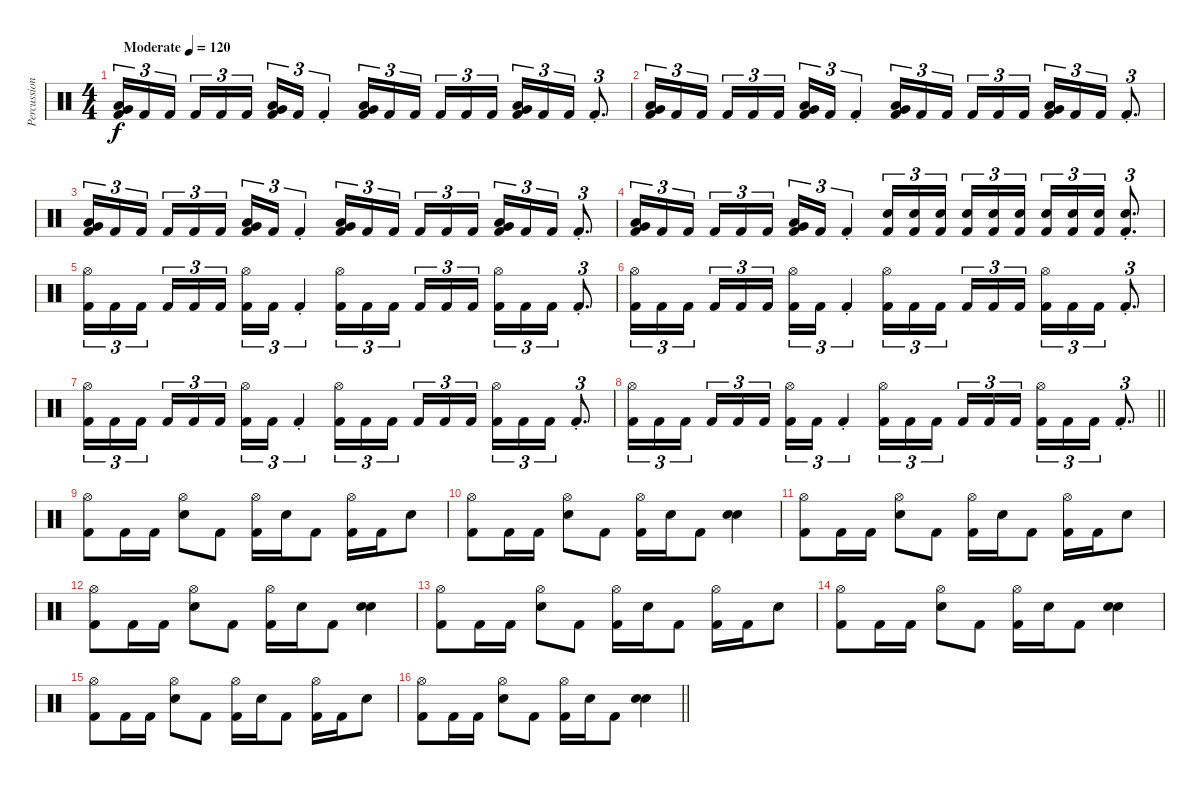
\track ("Percussion" "Percussion") {instrument percussion}
\staff {score}
\articulation defaults
\ts (4 4)
\tempo (120 "Moderate")
\clef neutral
\ks c
("Low Tom (hit)" "Very Low Tom (hit)" "Kick (hit) 2").16{tu (3 2) dy f} "Kick (hit) 2".16{tu (3 2)} "Kick (hit) 2".16{tu (3 2) beam splitsecondary} "Kick (hit) 2".16{tu (3 2)} "Kick (hit) 2".16{tu (3 2)} "Kick (hit) 2".16{tu (3 2)} ("Low Tom (hit)" "Very Low Tom (hit)" "Kick (hit) 2").16{tu (3 2)} "Kick (hit) 2".16{tu (3 2)} "Kick (hit) 2"{st}.4{tu (3 2)} ("Low Tom (hit)" "Very Low Tom (hit)" "Kick (hit) 2").16{tu (3 2)} "Kick (hit) 2".16{tu (3 2)} "Kick (hit) 2".16{tu (3 2) beam splitsecondary} "Kick (hit) 2".16{tu (3 2)} "Kick (hit) 2".16{tu (3 2)} "Kick (hit) 2".16{tu (3 2)} ("Low Tom (hit)" "Very Low Tom (hit)" "Kick (hit) 2").16{tu (3 2)} "Kick (hit) 2".16{tu (3 2)} "Kick (hit) 2".16{tu (3 2)} "Kick (hit) 2"{st}.8{d tu (3 2)} |
("Low Tom (hit)" "Very Low Tom (hit)" "Kick (hit) 2").16{tu (3 2)} "Kick (hit) 2".16{tu (3 2)} "Kick (hit) 2".16{tu (3 2) beam splitsecondary} "Kick (hit) 2".16{tu (3 2)} "Kick (hit) 2".16{tu (3 2)} "Kick (hit) 2".16{tu (3 2)} ("Low Tom (hit)" "Very Low Tom (hit)" "Kick (hit) 2").16{tu (3 2)} "Kick (hit) 2".16{tu (3 2)} "Kick (hit) 2"{st}.4{tu (3 2)} ("Low Tom (hit)" "Very Low Tom (hit)" "Kick (hit) 2").16{tu (3 2)} "Kick (hit) 2".16{tu (3 2)} "Kick (hit) 2".16{tu (3 2) beam splitsecondary} "Kick (hit) 2".16{tu (3 2)} "Kick (hit) 2".16{tu (3 2)} "Kick (hit) 2".16{tu (3 2)} ("Low Tom (hit)" "Very Low Tom (hit)" "Kick (hit) 2").16{tu (3 2)} "Kick (hit) 2".16{tu (3 2)} "Kick (hit) 2".16{tu (3 2)} "Kick (hit) 2"{st}.8{d tu (3 2)} |
("Low Tom (hit)" "Very Low Tom (hit)" "Kick (hit) 2").16{tu (3 2)} "Kick (hit) 2".16{tu (3 2)} "Kick (hit) 2".16{tu (3 2) beam splitsecondary} "Kick (hit) 2".16{tu (3 2)} "Kick (hit) 2".16{tu (3 2)} "Kick (hit) 2".16{tu (3 2)} ("Low Tom (hit)" "Very Low Tom (hit)" "Kick (hit) 2").16{tu (3 2)} "Kick (hit) 2".16{tu (3 2)} "Kick (hit) 2"{st}.4{tu (3 2)} ("Low Tom (hit)" "Very Low Tom (hit)" "Kick (hit) 2").16{tu (3 2)} "Kick (hit) 2".16{tu (3 2)} "Kick (hit) 2".16{tu (3 2) beam splitsecondary} "Kick (hit) 2".16{tu (3 2)} "Kick (hit) 2".16{tu (3 2)} "Kick (hit) 2".16{tu (3 2)} ("Low Tom (hit)" "Very Low Tom (hit)" "Kick (hit) 2").16{tu (3 2)} "Kick (hit) 2".16{tu (3 2)} "Kick (hit) 2".16{tu (3 2)} "Kick (hit) 2"{st}.8{d tu (3 2)} |
("Low Tom (hit)" "Very Low Tom (hit)" "Kick (hit) 2").16{tu (3 2)} "Kick (hit) 2".16{tu (3 2)} "Kick (hit) 2".16{tu (3 2) beam splitsecondary} "Kick (hit) 2".16{tu (3 2)} "Kick (hit) 2".16{tu (3 2)} "Kick (hit) 2".16{tu (3 2)} ("Low Tom (hit)" "Very Low Tom (hit)" "Kick (hit) 2").16{tu (3 2)} "Kick (hit) 2".16{tu (3 2)} "Kick (hit) 2"{st}.4{tu (3 2)} ("Electric Snare (hit)" "Kick (hit) 2").16{tu (3 2)} ("Electric Snare (hit)" "Kick (hit) 2").16{tu (3 2)} ("Electric Snare (hit)" "Kick (hit) 2").16{tu (3 2) beam splitsecondary} ("Electric Snare (hit)" "Kick (hit) 2").16{tu (3 2)} ("Electric Snare (hit)" "Kick (hit) 2").16{tu (3 2)} ("Electric Snare (hit)" "Kick (hit) 2").16{tu (3 2)} ("Electric Snare (hit)" "Kick (hit) 2").16{tu (3 2)} ("Electric Snare (hit)" "Kick (hit) 2").16{tu (3 2)} ("Electric Snare (hit)" "Kick (hit) 2").16{tu (3 2)} ("Electric Snare (hit)" "Kick (hit) 2"{st}).8{d tu (3 2)} |
("Hi-Hat (open)" "Kick (hit) 2").16{tu (3 2)} "Kick (hit) 2".16{tu (3 2)} "Kick (hit) 2".16{tu (3 2) beam splitsecondary} "Kick (hit) 2".16{tu (3 2)} "Kick (hit) 2".16{tu (3 2)} "Kick (hit) 2".16{tu (3 2)} ("Hi-Hat (open)" "Kick (hit) 2").16{tu (3 2)} "Kick (hit) 2".16{tu (3 2)} "Kick (hit) 2"{st}.4{tu (3 2)} ("Hi-Hat (open)" "Kick (hit) 2").16{tu (3 2)} "Kick (hit) 2".16{tu (3 2)} "Kick (hit) 2".16{tu (3 2) beam splitsecondary} "Kick (hit) 2".16{tu (3 2)} "Kick (hit) 2".16{tu (3 2)} "Kick (hit) 2".16{tu (3 2)} ("Hi-Hat (open)" "Kick (hit) 2").16{tu (3 2)} "Kick (hit) 2".16{tu (3 2)} "Kick (hit) 2".16{tu (3 2)} "Kick (hit) 2"{st}.8{d tu (3 2)} |
("Hi-Hat (open)" "Kick (hit) 2").16{tu (3 2)} "Kick (hit) 2".16{tu (3 2)} "Kick (hit) 2".16{tu (3 2) beam splitsecondary} "Kick (hit) 2".16{tu (3 2)} "Kick (hit) 2".16{tu (3 2)} "Kick (hit) 2".16{tu (3 2)} ("Hi-Hat (open)" "Kick (hit) 2").16{tu (3 2)} "Kick (hit) 2".16{tu (3 2)} "Kick (hit) 2"{st}.4{tu (3 2)} ("Hi-Hat (open)" "Kick (hit) 2").16{tu (3 2)} "Kick (hit) 2".16{tu (3 2)} "Kick (hit) 2".16{tu (3 2) beam splitsecondary} "Kick (hit) 2".16{tu (3 2)} "Kick (hit) 2".16{tu (3 2)} "Kick (hit) 2".16{tu (3 2)} ("Hi-Hat (open)" "Kick (hit) 2").16{tu (3 2)} "Kick (hit) 2".16{tu (3 2)} "Kick (hit) 2".16{tu (3 2)} "Kick (hit) 2"{st}.8{d tu (3 2)} |
("Hi-Hat (open)" "Kick (hit) 2").16{tu (3 2)} "Kick (hit) 2".16{tu (3 2)} "Kick (hit) 2".16{tu (3 2) beam splitsecondary} "Kick (hit) 2".16{tu (3 2)} "Kick (hit) 2".16{tu (3 2)} "Kick (hit) 2".16{tu (3 2)} ("Hi-Hat (open)" "Kick (hit) 2").16{tu (3 2)} "Kick (hit) 2".16{tu (3 2)} "Kick (hit) 2"{st}.4{tu (3 2)} ("Hi-Hat (open)" "Kick (hit) 2").16{tu (3 2)} "Kick (hit) 2".16{tu (3 2)} "Kick (hit) 2".16{tu (3 2) beam splitsecondary} "Kick (hit) 2".16{tu (3 2)} "Kick (hit) 2".16{tu (3 2)} "Kick (hit) 2".16{tu (3 2)} ("Hi-Hat (open)" "Kick (hit) 2").16{tu (3 2)} "Kick (hit) 2".16{tu (3 2)} "Kick (hit) 2".16{tu (3 2)} "Kick (hit) 2"{st}.8{d tu (3 2)} |
\barLineRight lightlight
("Hi-Hat (open)" "Kick (hit) 2").16{tu (3 2)} "Kick (hit) 2".16{tu (3 2)} "Kick (hit) 2".16{tu (3 2) beam splitsecondary} "Kick (hit) 2".16{tu (3 2)} "Kick (hit) 2".16{tu (3 2)} "Kick (hit) 2".16{tu (3 2)} ("Hi-Hat (open)" "Kick (hit) 2").16{tu (3 2)} "Kick (hit) 2".16{tu (3 2)} "Kick (hit) 2"{st}.4{tu (3 2)} ("Hi-Hat (open)" "Kick (hit) 2").16{tu (3 2)} "Kick (hit) 2".16{tu (3 2)} "Kick (hit) 2".16{tu (3 2) beam splitsecondary} "Kick (hit) 2".16{tu (3 2)} "Kick (hit) 2".16{tu (3 2)} "Kick (hit) 2".16{tu (3 2)} ("Hi-Hat (open)" "Kick (hit) 2").16{tu (3 2)} "Kick (hit) 2".16{tu (3 2)} "Kick (hit) 2".16{tu (3 2)} "Kick (hit) 2"{st}.8{d tu (3 2)} |
("Hi-Hat (open)" "Kick (hit) 2").8 "Kick (hit) 2".16 "Kick (hit) 2".16 ("Hi-Hat (open)" "Electric Snare (hit)").8 "Kick (hit) 2".8 ("Hi-Hat (open)" "Kick (hit) 2").16 "Electric Snare (hit)".16 "Kick (hit) 2".8 ("Hi-Hat (open)" "Kick (hit) 2").16 "Kick (hit) 2".16 "Electric Snare (hit)".8 |
("Hi-Hat (open)" "Kick (hit) 2").8 "Kick (hit) 2".16 "Kick (hit) 2".16 ("Hi-Hat (open)" "Electric Snare (hit)").8 "Kick (hit) 2".8 ("Hi-Hat (open)" "Kick (hit) 2").16 "Electric Snare (hit)".16 "Kick (hit) 2".8 ("Electric Snare (hit)" "Electric Snare (hit)").4{bd 480} |
("Hi-Hat (open)" "Kick (hit) 2").8 "Kick (hit) 2".16 "Kick (hit) 2".16 ("Hi-Hat (open)" "Electric Snare (hit)").8 "Kick (hit) 2".8 ("Hi-Hat (open)" "Kick (hit) 2").16 "Electric Snare (hit)".16 "Kick (hit) 2".8 ("Hi-Hat (open)" "Kick (hit) 2").16 "Kick (hit) 2".16 "Electric Snare (hit)".8 |
("Hi-Hat (open)" "Kick (hit) 2").8 "Kick (hit) 2".16 "Kick (hit) 2".16 ("Hi-Hat (open)" "Electric Snare (hit)").8 "Kick (hit) 2".8 ("Hi-Hat (open)" "Kick (hit) 2").16 "Electric Snare (hit)".16 "Kick (hit) 2".8 ("Electric Snare (hit)" "Electric Snare (hit)").4{bd 480} |
("Hi-Hat (open)" "Kick (hit) 2").8 "Kick (hit) 2".16 "Kick (hit) 2".16 ("Hi-Hat (open)" "Electric Snare (hit)").8 "Kick (hit) 2".8 ("Hi-Hat (open)" "Kick (hit) 2").16 "Electric Snare (hit)".16 "Kick (hit) 2".8 ("Hi-Hat (open)" "Kick (hit) 2").16 "Kick (hit) 2".16 "Electric Snare (hit)".8 |
("Hi-Hat (open)" "Kick (hit) 2").8 "Kick (hit) 2".16 "Kick (hit) 2".16 ("Hi-Hat (open)" "Electric Snare (hit)").8 "Kick (hit) 2".8 ("Hi-Hat (open)" "Kick (hit) 2").16 "Electric Snare (hit)".16 "Kick (hit) 2".8 ("Electric Snare (hit)" "Electric Snare (hit)").4{bd 480} |
("Hi-Hat (open)" "Kick (hit) 2").8 "Kick (hit) 2".16 "Kick (hit) 2".16 ("Hi-Hat (open)" "Electric Snare (hit)").8 "Kick (hit) 2".8 ("Hi-Hat (open)" "Kick (hit) 2").16 "Electric Snare (hit)".16 "Kick (hit) 2".8 ("Hi-Hat (open)" "Kick (hit) 2").16 "Kick (hit) 2".16 "Electric Snare (hit)".8 |
\barLineRight lightlight
("Hi-Hat (open)" "Kick (hit) 2").8 "Kick (hit) 2".16 "Kick (hit) 2".16 ("Hi-Hat (open)" "Electric Snare (hit)").8 "Kick (hit) 2".8 ("Hi-Hat (open)" "Kick (hit) 2").16 "Electric Snare (hit)".16 "Kick (hit) 2".8 ("Electric Snare (hit)" "Electric Snare (hit)").4{bd 480}
